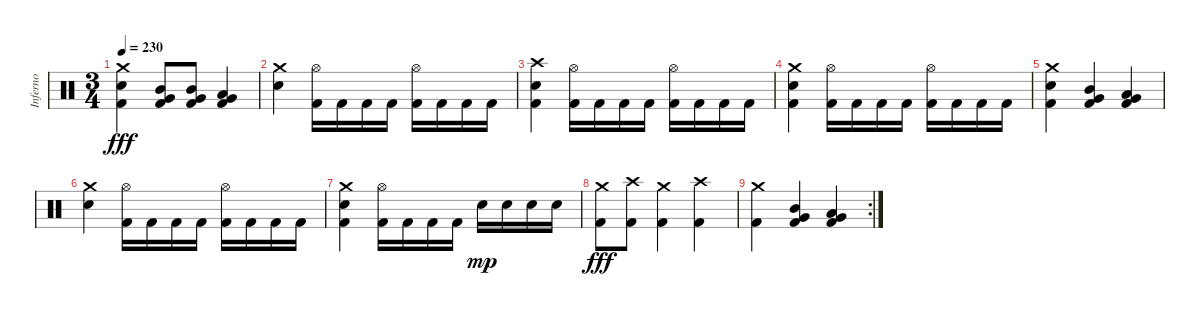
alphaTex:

\track ("Inferno" "Inferno") {instrument percussion}
\staff {score}
\articulation defaults
\ts (3 4)
\tempo 230
\clef neutral
\ks c
("Kick (hit) 2" "Electric Snare (hit)" "Crash medium (hit)").4{dy fff} ("Kick (hit) 2" "Mid Tom (hit)" "Very Low Tom (hit)").8 ("Kick (hit) 2" "Mid Tom (hit)" "Very Low Tom (hit)").8 ("Kick (hit) 2" "Low Tom (hit)" "Very Low Tom (hit)").4 |
("Electric Snare (hit)" "Crash medium (hit)").4 ("Kick (hit) 2" "Hi-Hat (open)").16 "Kick (hit) 2".16 "Kick (hit) 2".16 "Kick (hit) 2".16 ("Kick (hit) 2" "Hi-Hat (open)").16 "Kick (hit) 2".16 "Kick (hit) 2".16 "Kick (hit) 2".16 |
("Kick (hit) 2" "Electric Snare (hit)" "Crash high (hit)").4 ("Kick (hit) 2" "Hi-Hat (open)").16 "Kick (hit) 2".16 "Kick (hit) 2".16 "Kick (hit) 2".16 ("Kick (hit) 2" "Hi-Hat (open)").16 "Kick (hit) 2".16 "Kick (hit) 2".16 "Kick (hit) 2".16 |
("Kick (hit) 2" "Electric Snare (hit)" "Crash medium (hit)").4 ("Kick (hit) 2" "Hi-Hat (open)").16 "Kick (hit) 2".16 "Kick (hit) 2".16 "Kick (hit) 2".16 ("Kick (hit) 2" "Hi-Hat (open)").16 "Kick (hit) 2".16 "Kick (hit) 2".16 "Kick (hit) 2".16 |
("Kick (hit) 2" "Electric Snare (hit)" "Crash medium (hit)").4 ("Kick (hit) 2" "Mid Tom (hit)" "Very Low Tom (hit)").4 ("Kick (hit) 2" "Low Tom (hit)" "Very Low Tom (hit)").4 |
("Electric Snare (hit)" "Crash medium (hit)").4 ("Kick (hit) 2" "Hi-Hat (open)").16 "Kick (hit) 2".16 "Kick (hit) 2".16 "Kick (hit) 2".16 ("Kick (hit) 2" "Hi-Hat (open)").16 "Kick (hit) 2".16 "Kick (hit) 2".16 "Kick (hit) 2".16 |
("Kick (hit) 2" "Electric Snare (hit)" "Crash medium (hit)").4 ("Kick (hit) 2" "Hi-Hat (open)").16 "Kick (hit) 2".16 "Kick (hit) 2".16 "Kick (hit) 2".16 "Electric Snare (hit)".16{dy mp} "Electric Snare (hit)".16 "Electric Snare (hit)".16 "Electric Snare (hit)".16 |
("Kick (hit) 2" "Crash medium (hit)").8{dy fff} ("Kick (hit) 2" "Crash high (hit)").8 ("Kick (hit) 2" "Crash medium (hit)").4 ("Kick (hit) 2" "Crash high (hit)").4 |
\rc 2
("Kick (hit) 2" "Crash medium (hit)").4 ("Kick (hit) 2" "Mid Tom (hit)" "Very Low Tom (hit)").4 ("Kick (hit) 2" "Low Tom (hit)" "Very Low Tom (hit)").4
